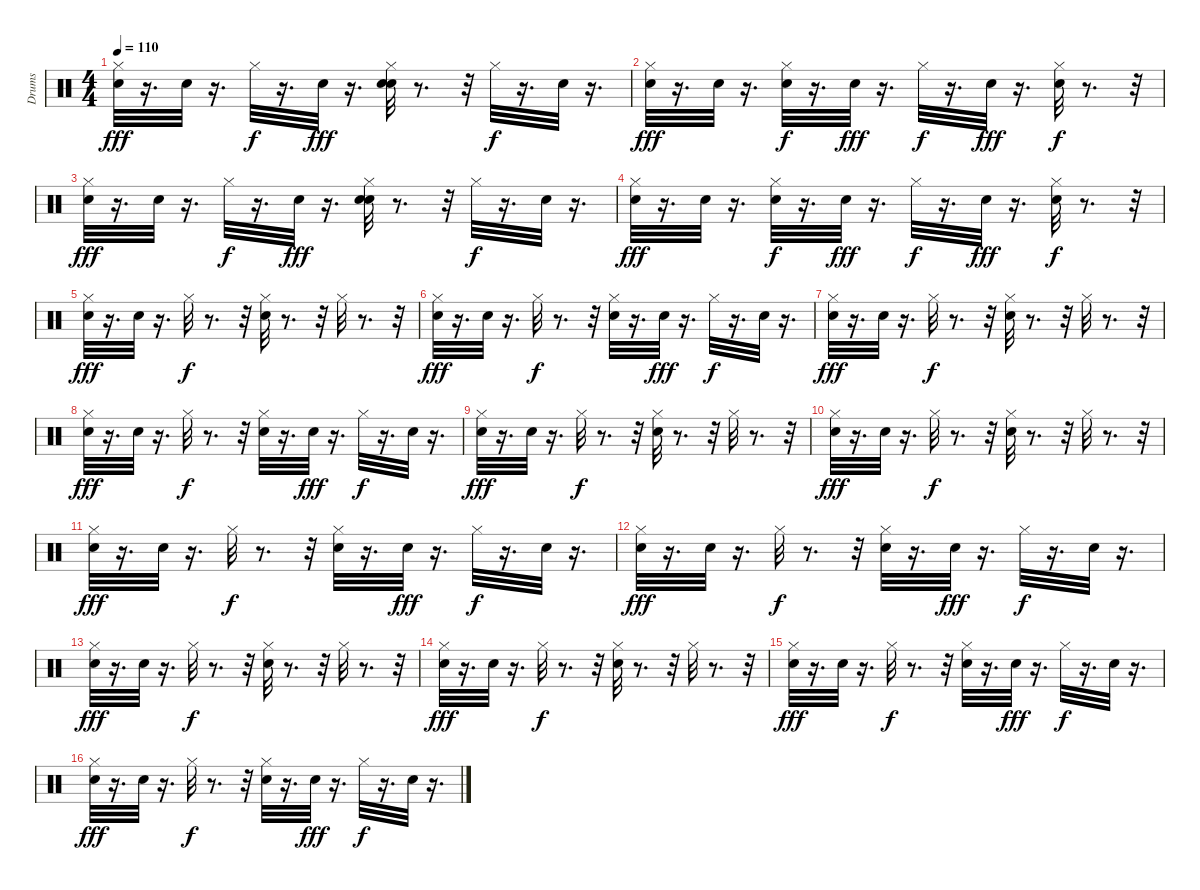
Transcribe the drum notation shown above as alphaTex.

\track ("Drums" "Drums") {instrument percussion}
\staff {score}
\articulation defaults
\ts (4 4)
\tempo 110
\clef neutral
\ks c
("Snare (hit)" "Hi-Hat (closed)").32{dy fff} r.16{d} "Snare (hit)".32 r.16{d} "Hi-Hat (closed)".32{dy f} r.16{d} "Snare (hit)".32{dy fff} r.16{d} ("Snare (hit)" "Snare (hit) 2" "Hi-Hat (closed)").32 r.8{d} r.32 "Hi-Hat (closed)".32{dy f} r.16{d} "Snare (hit) 2".32 r.16{d} |
("Snare (hit)" "Hi-Hat (closed)").32{dy fff} r.16{d} "Snare (hit)".32 r.16{d} ("Snare (hit) 2" "Hi-Hat (closed)").32{dy f} r.16{d} "Snare (hit)".32{dy fff} r.16{d} "Hi-Hat (closed)".32{dy f} r.16{d} "Snare (hit)".32{dy fff} r.16{d} ("Snare (hit) 2" "Hi-Hat (closed)").32{dy f} r.8{d} r.32 |
("Snare (hit)" "Hi-Hat (closed)").32{dy fff} r.16{d} "Snare (hit)".32 r.16{d} "Hi-Hat (closed)".32{dy f} r.16{d} "Snare (hit)".32{dy fff} r.16{d} ("Snare (hit)" "Snare (hit) 2" "Hi-Hat (closed)").32 r.8{d} r.32 "Hi-Hat (closed)".32{dy f} r.16{d} "Snare (hit) 2".32 r.16{d} |
("Snare (hit)" "Hi-Hat (closed)").32{dy fff} r.16{d} "Snare (hit)".32 r.16{d} ("Snare (hit) 2" "Hi-Hat (closed)").32{dy f} r.16{d} "Snare (hit)".32{dy fff} r.16{d} "Hi-Hat (closed)".32{dy f} r.16{d} "Snare (hit)".32{dy fff} r.16{d} ("Snare (hit) 2" "Hi-Hat (closed)").32{dy f} r.8{d} r.32 |
("Snare (hit)" "Hi-Hat (closed)").32{dy fff} r.16{d} "Snare (hit)".32 r.16{d} "Hi-Hat (closed)".32{dy f} r.8{d} r.32 ("Snare (hit) 2" "Hi-Hat (closed)").32 r.8{d} r.32 "Hi-Hat (closed)".32 r.8{d} r.32 |
("Snare (hit)" "Hi-Hat (closed)").32{dy fff} r.16{d} "Snare (hit)".32 r.16{d} "Hi-Hat (closed)".32{dy f} r.8{d} r.32 ("Snare (hit) 2" "Hi-Hat (closed)").32 r.16{d} "Snare (hit)".32{dy fff} r.16{d} "Hi-Hat (closed)".32{dy f} r.16{d} "Snare (hit) 2".32 r.16{d} |
("Snare (hit)" "Hi-Hat (closed)").32{dy fff} r.16{d} "Snare (hit)".32 r.16{d} "Hi-Hat (closed)".32{dy f} r.8{d} r.32 ("Snare (hit) 2" "Hi-Hat (closed)").32 r.8{d} r.32 "Hi-Hat (closed)".32 r.8{d} r.32 |
("Snare (hit)" "Hi-Hat (closed)").32{dy fff} r.16{d} "Snare (hit)".32 r.16{d} "Hi-Hat (closed)".32{dy f} r.8{d} r.32 ("Snare (hit) 2" "Hi-Hat (closed)").32 r.16{d} "Snare (hit)".32{dy fff} r.16{d} "Hi-Hat (closed)".32{dy f} r.16{d} "Snare (hit) 2".32 r.16{d} |
("Snare (hit)" "Hi-Hat (closed)").32{dy fff} r.16{d} "Snare (hit)".32 r.16{d} "Hi-Hat (closed)".32{dy f} r.8{d} r.32 ("Snare (hit) 2" "Hi-Hat (closed)").32 r.8{d} r.32 "Hi-Hat (closed)".32 r.8{d} r.32 |
("Snare (hit)" "Hi-Hat (closed)").32{dy fff} r.16{d} "Snare (hit)".32 r.16{d} "Hi-Hat (closed)".32{dy f} r.8{d} r.32 ("Snare (hit) 2" "Hi-Hat (closed)").32 r.8{d} r.32 "Hi-Hat (closed)".32 r.8{d} r.32 |
("Snare (hit)" "Hi-Hat (closed)").32{dy fff} r.16{d} "Snare (hit)".32 r.16{d} "Hi-Hat (closed)".32{dy f} r.8{d} r.32 ("Snare (hit) 2" "Hi-Hat (closed)").32 r.16{d} "Snare (hit)".32{dy fff} r.16{d} "Hi-Hat (closed)".32{dy f} r.16{d} "Snare (hit) 2".32 r.16{d} |
("Snare (hit)" "Hi-Hat (closed)").32{dy fff} r.16{d} "Snare (hit)".32 r.16{d} "Hi-Hat (closed)".32{dy f} r.8{d} r.32 ("Snare (hit) 2" "Hi-Hat (closed)").32 r.16{d} "Snare (hit)".32{dy fff} r.16{d} "Hi-Hat (closed)".32{dy f} r.16{d} "Snare (hit) 2".32 r.16{d} |
("Snare (hit)" "Hi-Hat (closed)").32{dy fff} r.16{d} "Snare (hit)".32 r.16{d} "Hi-Hat (closed)".32{dy f} r.8{d} r.32 ("Snare (hit) 2" "Hi-Hat (closed)").32 r.8{d} r.32 "Hi-Hat (closed)".32 r.8{d} r.32 |
("Snare (hit)" "Hi-Hat (closed)").32{dy fff} r.16{d} "Snare (hit)".32 r.16{d} "Hi-Hat (closed)".32{dy f} r.8{d} r.32 ("Snare (hit) 2" "Hi-Hat (closed)").32 r.8{d} r.32 "Hi-Hat (closed)".32 r.8{d} r.32 |
("Snare (hit)" "Hi-Hat (closed)").32{dy fff} r.16{d} "Snare (hit)".32 r.16{d} "Hi-Hat (closed)".32{dy f} r.8{d} r.32 ("Snare (hit) 2" "Hi-Hat (closed)").32 r.16{d} "Snare (hit)".32{dy fff} r.16{d} "Hi-Hat (closed)".32{dy f} r.16{d} "Snare (hit) 2".32 r.16{d} |
("Snare (hit)" "Hi-Hat (closed)").32{dy fff} r.16{d} "Snare (hit)".32 r.16{d} "Hi-Hat (closed)".32{dy f} r.8{d} r.32 ("Snare (hit) 2" "Hi-Hat (closed)").32 r.16{d} "Snare (hit)".32{dy fff} r.16{d} "Hi-Hat (closed)".32{dy f} r.16{d} "Snare (hit) 2".32 r.16{d}
